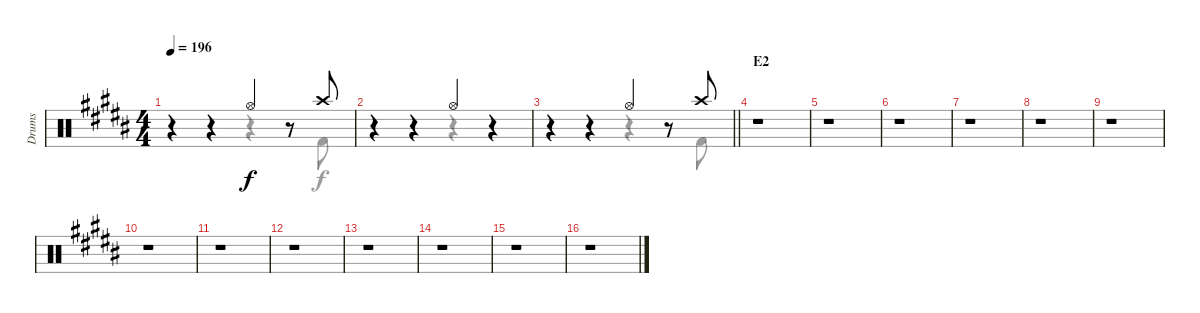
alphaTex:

\track ("Drums" "Drums") {instrument percussion}
\staff {score}
\articulation defaults
\voice
\ts (4 4)
\tempo 196
\clef neutral
\ks b
r.4{dy f} r.4 "Hi-Hat (open)".4 r.8 "Crash high (hit)".8 |
r.4 r.4 "Hi-Hat (open)".4 r.4 |
\barLineRight lightlight
r.4 r.4 "Hi-Hat (open)".4 r.8 "Crash high (hit)".8 |
\section ("" "E2")
r.1 |
r.1 |
r.1 |
r.1 |
r.1 |
r.1 |
r.1 |
r.1 |
r.1 |
r.1 |
r.1 |
r.1 |
r.1
\voice
\clef neutral
\ottava regular
\simile none
\ks b
r.4{dy f} r.4 r.4 r.8 "Kick (hit) 2".8 |
r.4 r.4 r.4 r.4 |
\barLineRight lightlight
r.4 r.4 r.4 r.8 "Kick (hit) 2".8 |
r.1 |
r.1 |
r.1 |
r.1 |
r.1 |
r.1 |
r.1 |
r.1 |
r.1 |
r.1 |
r.1 |
r.1 |
r.1
